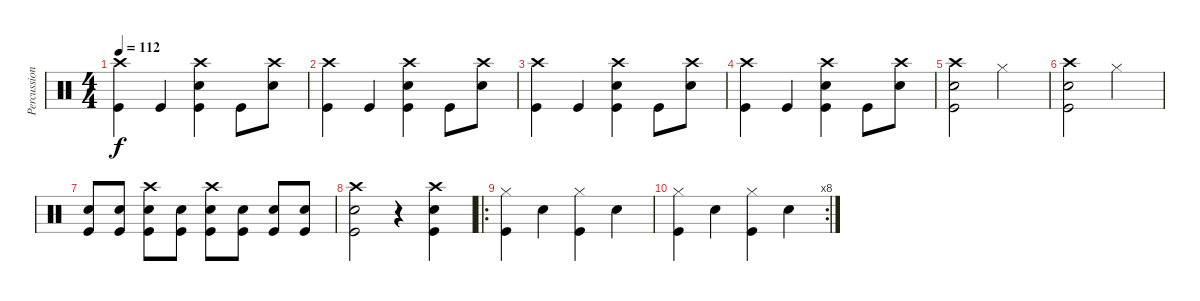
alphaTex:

\track ("Percussions" "Percussion") {instrument percussion}
\staff {score}
\articulation defaults
\ts (4 4)
\tempo 112
\clef neutral
\ks c
("Crash high (hit)" "Kick (hit)").4{dy f} "Kick (hit)".4 ("Crash high (hit)" "Kick (hit)" "Electric Snare (hit)").4 "Kick (hit)".8 ("Crash high (hit)" "Electric Snare (hit)").8 |
("Crash high (hit)" "Kick (hit)").4 "Kick (hit)".4 ("Crash high (hit)" "Kick (hit)" "Electric Snare (hit)").4 "Kick (hit)".8 ("Crash high (hit)" "Electric Snare (hit)").8 |
("Crash high (hit)" "Kick (hit)").4 "Kick (hit)".4 ("Crash high (hit)" "Kick (hit)" "Electric Snare (hit)").4 "Kick (hit)".8 ("Crash high (hit)" "Electric Snare (hit)").8 |
("Crash high (hit)" "Kick (hit)").4 "Kick (hit)".4 ("Crash high (hit)" "Kick (hit)" "Electric Snare (hit)").4 "Kick (hit)".8 ("Crash high (hit)" "Electric Snare (hit)").8 |
("Crash high (hit)" "Kick (hit)" "Electric Snare (hit)").2 "Hi-Hat (closed)".2 |
("Crash high (hit)" "Kick (hit)" "Electric Snare (hit)").2 "Hi-Hat (closed)".2 |
("Kick (hit)" "Electric Snare (hit)").8 ("Kick (hit)" "Electric Snare (hit)").8 ("Kick (hit)" "Electric Snare (hit)" "Crash high (hit)").8 ("Kick (hit)" "Electric Snare (hit)").8 ("Kick (hit)" "Electric Snare (hit)" "Crash high (hit)").8 ("Kick (hit)" "Electric Snare (hit)").8 ("Kick (hit)" "Electric Snare (hit)").8 ("Kick (hit)" "Electric Snare (hit)").8 |
("Electric Snare (hit)" "Kick (hit)" "Crash high (hit)").2 r.4 ("Electric Snare (hit)" "Crash high (hit)" "Kick (hit)").4 |
\ro
("Kick (hit)" "Hi-Hat (closed)").4 "Electric Snare (hit)".4 ("Kick (hit)" "Hi-Hat (closed)").4 "Electric Snare (hit)".4 |
\rc 8
("Kick (hit)" "Hi-Hat (closed)").4 "Electric Snare (hit)".4 ("Kick (hit)" "Hi-Hat (closed)").4 "Electric Snare (hit)".4
